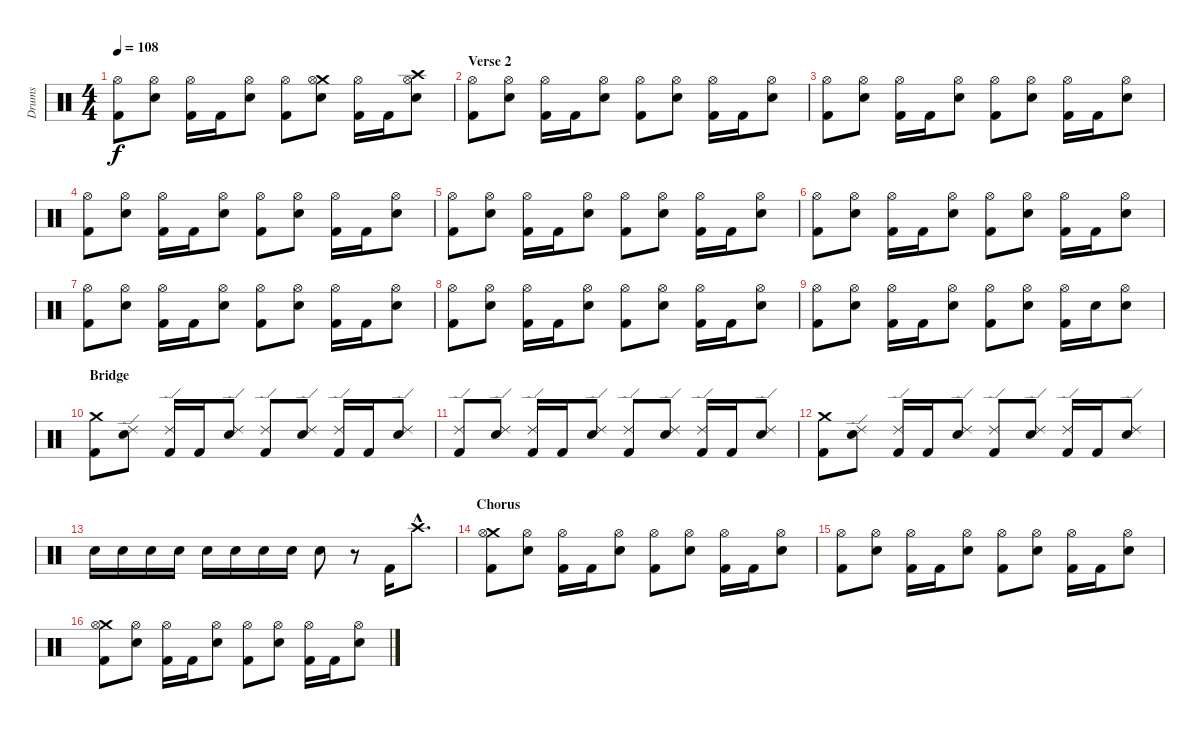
\track ("Drums" "Drums") {instrument percussion}
\staff {score}
\articulation defaults
\ts (4 4)
\tempo 108
\clef neutral
\ks c
("Hi-Hat (open)" "Kick (hit) 2").8{dy f} ("Hi-Hat (open)" "Electric Snare (hit)").8 ("Hi-Hat (open)" "Kick (hit) 2").16 "Kick (hit) 2".16 ("Hi-Hat (open)" "Electric Snare (hit)").8 ("Hi-Hat (open)" "Kick (hit) 2").8 ("Crash medium (hit)" "Hi-Hat (open)" "Electric Snare (hit)").8 ("Hi-Hat (open)" "Kick (hit) 2").16 "Kick (hit) 2".16 ("Crash high (hit)" "Hi-Hat (open)" "Electric Snare (hit)").8 |
\section ("" "Verse 2")
("Hi-Hat (open)" "Kick (hit) 2").8 ("Hi-Hat (open)" "Electric Snare (hit)").8 ("Hi-Hat (open)" "Kick (hit) 2").16 "Kick (hit) 2".16 ("Hi-Hat (open)" "Electric Snare (hit)").8 ("Hi-Hat (open)" "Kick (hit) 2").8 ("Hi-Hat (open)" "Electric Snare (hit)").8 ("Hi-Hat (open)" "Kick (hit) 2").16 "Kick (hit) 2".16 ("Hi-Hat (open)" "Electric Snare (hit)").8 |
("Hi-Hat (open)" "Kick (hit) 2").8 ("Hi-Hat (open)" "Electric Snare (hit)").8 ("Hi-Hat (open)" "Kick (hit) 2").16 "Kick (hit) 2".16 ("Hi-Hat (open)" "Electric Snare (hit)").8 ("Hi-Hat (open)" "Kick (hit) 2").8 ("Hi-Hat (open)" "Electric Snare (hit)").8 ("Hi-Hat (open)" "Kick (hit) 2").16 "Kick (hit) 2".16 ("Hi-Hat (open)" "Electric Snare (hit)").8 |
("Hi-Hat (open)" "Kick (hit) 2").8 ("Hi-Hat (open)" "Electric Snare (hit)").8 ("Hi-Hat (open)" "Kick (hit) 2").16 "Kick (hit) 2".16 ("Hi-Hat (open)" "Electric Snare (hit)").8 ("Hi-Hat (open)" "Kick (hit) 2").8 ("Hi-Hat (open)" "Electric Snare (hit)").8 ("Hi-Hat (open)" "Kick (hit) 2").16 "Kick (hit) 2".16 ("Hi-Hat (open)" "Electric Snare (hit)").8 |
("Hi-Hat (open)" "Kick (hit) 2").8 ("Hi-Hat (open)" "Electric Snare (hit)").8 ("Hi-Hat (open)" "Kick (hit) 2").16 "Kick (hit) 2".16 ("Hi-Hat (open)" "Electric Snare (hit)").8 ("Hi-Hat (open)" "Kick (hit) 2").8 ("Hi-Hat (open)" "Electric Snare (hit)").8 ("Hi-Hat (open)" "Kick (hit) 2").16 "Kick (hit) 2".16 ("Hi-Hat (open)" "Electric Snare (hit)").8 |
("Hi-Hat (open)" "Kick (hit) 2").8 ("Hi-Hat (open)" "Electric Snare (hit)").8 ("Hi-Hat (open)" "Kick (hit) 2").16 "Kick (hit) 2".16 ("Hi-Hat (open)" "Electric Snare (hit)").8 ("Hi-Hat (open)" "Kick (hit) 2").8 ("Hi-Hat (open)" "Electric Snare (hit)").8 ("Hi-Hat (open)" "Kick (hit) 2").16 "Kick (hit) 2".16 ("Hi-Hat (open)" "Electric Snare (hit)").8 |
("Hi-Hat (open)" "Kick (hit) 2").8 ("Hi-Hat (open)" "Electric Snare (hit)").8 ("Hi-Hat (open)" "Kick (hit) 2").16 "Kick (hit) 2".16 ("Hi-Hat (open)" "Electric Snare (hit)").8 ("Hi-Hat (open)" "Kick (hit) 2").8 ("Hi-Hat (open)" "Electric Snare (hit)").8 ("Hi-Hat (open)" "Kick (hit) 2").16 "Kick (hit) 2".16 ("Hi-Hat (open)" "Electric Snare (hit)").8 |
("Hi-Hat (open)" "Kick (hit) 2").8 ("Hi-Hat (open)" "Electric Snare (hit)").8 ("Hi-Hat (open)" "Kick (hit) 2").16 "Kick (hit) 2".16 ("Hi-Hat (open)" "Electric Snare (hit)").8 ("Hi-Hat (open)" "Kick (hit) 2").8 ("Hi-Hat (open)" "Electric Snare (hit)").8 ("Hi-Hat (open)" "Kick (hit) 2").16 "Kick (hit) 2".16 ("Hi-Hat (open)" "Electric Snare (hit)").8 |
("Hi-Hat (open)" "Kick (hit) 2").8 ("Hi-Hat (open)" "Electric Snare (hit)").8 ("Hi-Hat (open)" "Kick (hit) 2").16 "Kick (hit) 2".16 ("Hi-Hat (open)" "Electric Snare (hit)").8 ("Hi-Hat (open)" "Kick (hit) 2").8 ("Hi-Hat (open)" "Electric Snare (hit)").8 ("Hi-Hat (open)" "Kick (hit) 2").16 "Electric Snare (hit)".16 ("Hi-Hat (open)" "Electric Snare (hit)").8 |
\section ("" "Bridge")
("Crash medium (hit)" "Kick (hit) 2").8 ("Ride (edge) 2" "Electric Snare (hit)").8 ("Ride (edge) 2" "Kick (hit) 2").16 "Kick (hit) 2".16 ("Ride (edge) 2" "Electric Snare (hit)").8 ("Ride (edge) 2" "Kick (hit) 2").8 ("Ride (edge) 2" "Electric Snare (hit)").8 ("Ride (edge) 2" "Kick (hit) 2").16 "Kick (hit) 2".16 ("Ride (edge) 2" "Electric Snare (hit)").8 |
("Ride (edge) 2" "Kick (hit) 2").8 ("Ride (edge) 2" "Electric Snare (hit)").8 ("Ride (edge) 2" "Kick (hit) 2").16 "Kick (hit) 2".16 ("Ride (edge) 2" "Electric Snare (hit)").8 ("Ride (edge) 2" "Kick (hit) 2").8 ("Ride (edge) 2" "Electric Snare (hit)").8 ("Ride (edge) 2" "Kick (hit) 2").16 "Kick (hit) 2".16 ("Ride (edge) 2" "Electric Snare (hit)").8 |
("Crash medium (hit)" "Kick (hit) 2").8 ("Ride (edge) 2" "Electric Snare (hit)").8 ("Ride (edge) 2" "Kick (hit) 2").16 "Kick (hit) 2".16 ("Ride (edge) 2" "Electric Snare (hit)").8 ("Ride (edge) 2" "Kick (hit) 2").8 ("Ride (edge) 2" "Electric Snare (hit)").8 ("Ride (edge) 2" "Kick (hit) 2").16 "Kick (hit) 2".16 ("Ride (edge) 2" "Electric Snare (hit)").8 |
"Electric Snare (hit)".16 "Electric Snare (hit)".16 "Electric Snare (hit)".16 "Electric Snare (hit)".16 "Electric Snare (hit)".16 "Electric Snare (hit)".16 "Electric Snare (hit)".16 "Electric Snare (hit)".16 "Electric Snare (hit)".8 r.8 "Kick (hit) 2".16 "Crash high (hit)"{hac}.8{d} |
\section ("" "Chorus")
("Crash medium (hit)" "Hi-Hat (open)" "Kick (hit) 2").8 ("Hi-Hat (open)" "Electric Snare (hit)").8 ("Hi-Hat (open)" "Kick (hit) 2").16 "Kick (hit) 2".16 ("Hi-Hat (open)" "Electric Snare (hit)").8 ("Hi-Hat (open)" "Kick (hit) 2").8 ("Hi-Hat (open)" "Electric Snare (hit)").8 ("Hi-Hat (open)" "Kick (hit) 2").16 "Kick (hit) 2".16 ("Hi-Hat (open)" "Electric Snare (hit)").8 |
("Hi-Hat (open)" "Kick (hit) 2").8 ("Hi-Hat (open)" "Electric Snare (hit)").8 ("Hi-Hat (open)" "Kick (hit) 2").16 "Kick (hit) 2".16 ("Hi-Hat (open)" "Electric Snare (hit)").8 ("Hi-Hat (open)" "Kick (hit) 2").8 ("Hi-Hat (open)" "Electric Snare (hit)").8 ("Hi-Hat (open)" "Kick (hit) 2").16 "Kick (hit) 2".16 ("Hi-Hat (open)" "Electric Snare (hit)").8 |
("Crash medium (hit)" "Hi-Hat (open)" "Kick (hit) 2").8 ("Hi-Hat (open)" "Electric Snare (hit)").8 ("Hi-Hat (open)" "Kick (hit) 2").16 "Kick (hit) 2".16 ("Hi-Hat (open)" "Electric Snare (hit)").8 ("Hi-Hat (open)" "Kick (hit) 2").8 ("Hi-Hat (open)" "Electric Snare (hit)").8 ("Hi-Hat (open)" "Kick (hit) 2").16 "Kick (hit) 2".16 ("Hi-Hat (open)" "Electric Snare (hit)").8
